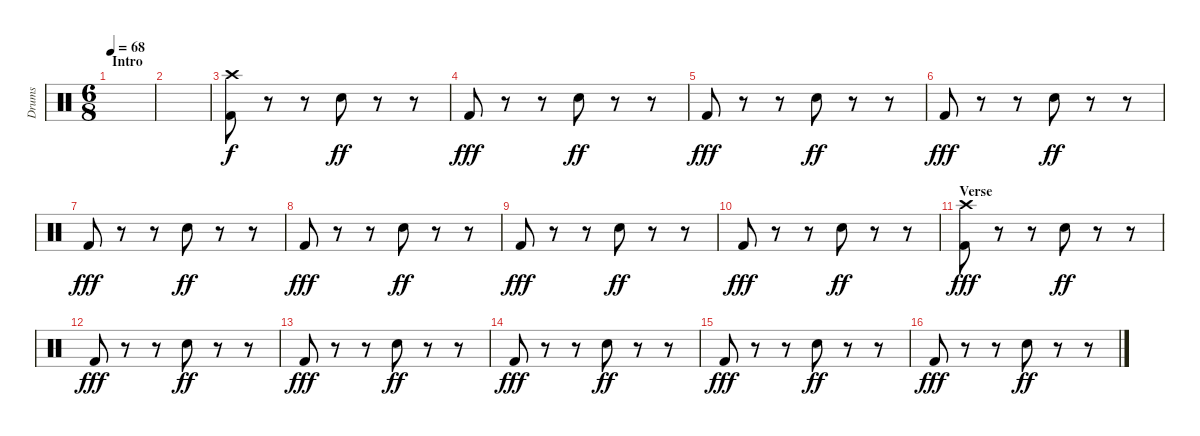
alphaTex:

\track ("Drums" "Drums") {instrument percussion}
\staff {score}
\articulation defaults
\ts (6 8)
\section ("" "Intro")
\tempo 68
\clef neutral
\ks c
|
|
("Crash high (hit)" "Kick (hit) 2").8 r.8 r.8 "Snare (hit) 2".8{dy ff} r.8 r.8 |
"Kick (hit) 2".8{dy fff} r.8 r.8 "Snare (hit) 2".8{dy ff} r.8 r.8 |
"Kick (hit) 2".8{dy fff} r.8 r.8 "Snare (hit) 2".8{dy ff} r.8 r.8 |
"Kick (hit) 2".8{dy fff} r.8 r.8 "Snare (hit) 2".8{dy ff} r.8 r.8 |
"Kick (hit) 2".8{dy fff} r.8 r.8 "Snare (hit) 2".8{dy ff} r.8 r.8 |
"Kick (hit) 2".8{dy fff} r.8 r.8 "Snare (hit) 2".8{dy ff} r.8 r.8 |
"Kick (hit) 2".8{dy fff} r.8 r.8 "Snare (hit) 2".8{dy ff} r.8 r.8 |
"Kick (hit) 2".8{dy fff} r.8 r.8 "Snare (hit) 2".8{dy ff} r.8 r.8 |
\section ("" "Verse")
("Crash high (hit)" "Kick (hit) 2").8{dy fff} r.8 r.8 "Snare (hit) 2".8{dy ff} r.8 r.8 |
"Kick (hit) 2".8{dy fff} r.8 r.8 "Snare (hit) 2".8{dy ff} r.8 r.8 |
"Kick (hit) 2".8{dy fff} r.8 r.8 "Snare (hit) 2".8{dy ff} r.8 r.8 |
"Kick (hit) 2".8{dy fff} r.8 r.8 "Snare (hit) 2".8{dy ff} r.8 r.8 |
"Kick (hit) 2".8{dy fff} r.8 r.8 "Snare (hit) 2".8{dy ff} r.8 r.8 |
"Kick (hit) 2".8{dy fff} r.8 r.8 "Snare (hit) 2".8{dy ff} r.8 r.8
